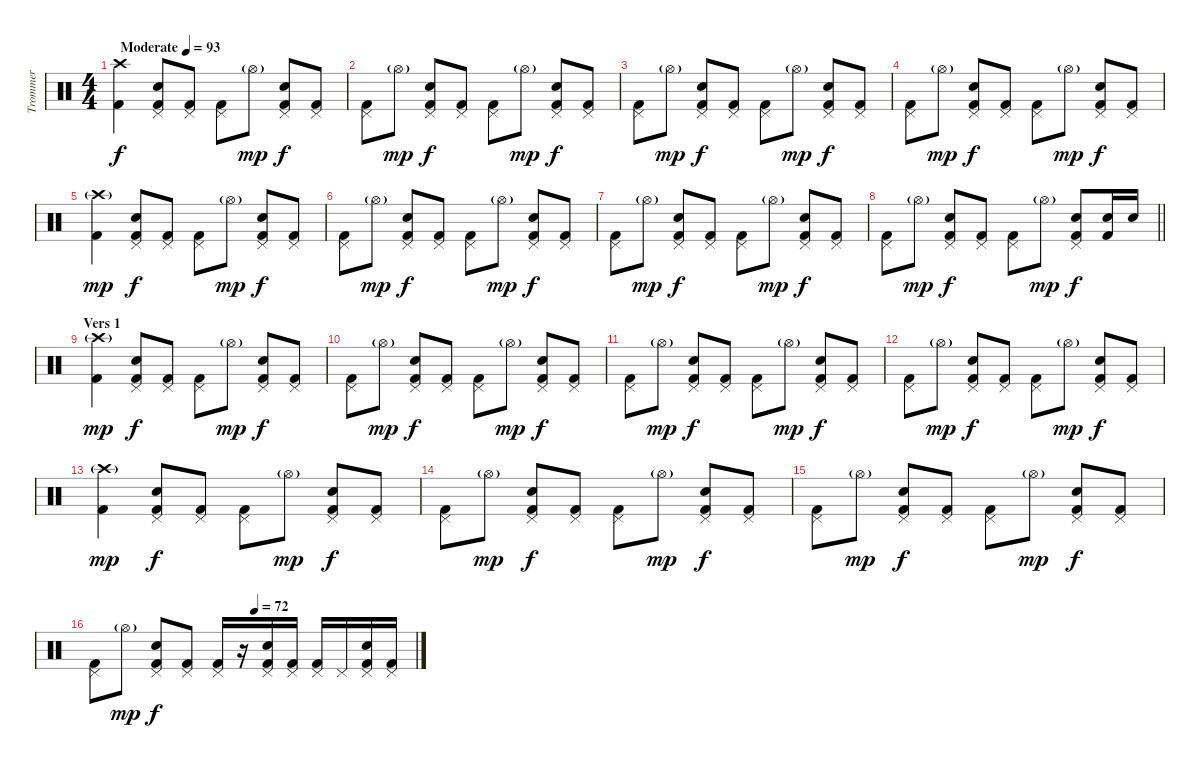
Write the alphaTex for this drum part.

\track ("Trommer" "Trommer") {instrument percussion}
\staff {score}
\articulation defaults
\ts (4 4)
\tempo (93 "Moderate")
\clef neutral
\ks c
("Crash high (hit)" "Kick (hit) 2").4{dy f} ("Pedal Hi-Hat (hit)" "Electric Snare (hit)" "Kick (hit) 2").8 ("Pedal Hi-Hat (hit)" "Kick (hit) 2").8 ("Pedal Hi-Hat (hit)" "Kick (hit) 2").8 "Hi-Hat (open)"{g}.8{dy mp} ("Pedal Hi-Hat (hit)" "Electric Snare (hit)" "Kick (hit) 2").8{dy f} ("Pedal Hi-Hat (hit)" "Kick (hit) 2").8 |
("Pedal Hi-Hat (hit)" "Kick (hit) 2").8 "Hi-Hat (open)"{g}.8{dy mp} ("Pedal Hi-Hat (hit)" "Electric Snare (hit)" "Kick (hit) 2").8{dy f} ("Pedal Hi-Hat (hit)" "Kick (hit) 2").8 ("Pedal Hi-Hat (hit)" "Kick (hit) 2").8 "Hi-Hat (open)"{g}.8{dy mp} ("Pedal Hi-Hat (hit)" "Electric Snare (hit)" "Kick (hit) 2").8{dy f} ("Pedal Hi-Hat (hit)" "Kick (hit) 2").8 |
("Pedal Hi-Hat (hit)" "Kick (hit) 2").8 "Hi-Hat (open)"{g}.8{dy mp} ("Pedal Hi-Hat (hit)" "Electric Snare (hit)" "Kick (hit) 2").8{dy f} ("Pedal Hi-Hat (hit)" "Kick (hit) 2").8 ("Pedal Hi-Hat (hit)" "Kick (hit) 2").8 "Hi-Hat (open)"{g}.8{dy mp} ("Pedal Hi-Hat (hit)" "Electric Snare (hit)" "Kick (hit) 2").8{dy f} ("Pedal Hi-Hat (hit)" "Kick (hit) 2").8 |
("Pedal Hi-Hat (hit)" "Kick (hit) 2").8 "Hi-Hat (open)"{g}.8{dy mp} ("Pedal Hi-Hat (hit)" "Electric Snare (hit)" "Kick (hit) 2").8{dy f} ("Pedal Hi-Hat (hit)" "Kick (hit) 2").8 ("Pedal Hi-Hat (hit)" "Kick (hit) 2").8 "Hi-Hat (open)"{g}.8{dy mp} ("Pedal Hi-Hat (hit)" "Electric Snare (hit)" "Kick (hit) 2").8{dy f} ("Pedal Hi-Hat (hit)" "Kick (hit) 2").8 |
("Crash high (hit)"{g} "Kick (hit) 2").4{dy mp} ("Pedal Hi-Hat (hit)" "Electric Snare (hit)" "Kick (hit) 2").8{dy f} ("Pedal Hi-Hat (hit)" "Kick (hit) 2").8 ("Pedal Hi-Hat (hit)" "Kick (hit) 2").8 "Hi-Hat (open)"{g}.8{dy mp} ("Pedal Hi-Hat (hit)" "Electric Snare (hit)" "Kick (hit) 2").8{dy f} ("Pedal Hi-Hat (hit)" "Kick (hit) 2").8 |
("Pedal Hi-Hat (hit)" "Kick (hit) 2").8 "Hi-Hat (open)"{g}.8{dy mp} ("Pedal Hi-Hat (hit)" "Electric Snare (hit)" "Kick (hit) 2").8{dy f} ("Pedal Hi-Hat (hit)" "Kick (hit) 2").8 ("Pedal Hi-Hat (hit)" "Kick (hit) 2").8 "Hi-Hat (open)"{g}.8{dy mp} ("Pedal Hi-Hat (hit)" "Electric Snare (hit)" "Kick (hit) 2").8{dy f} ("Pedal Hi-Hat (hit)" "Kick (hit) 2").8 |
("Pedal Hi-Hat (hit)" "Kick (hit) 2").8 "Hi-Hat (open)"{g}.8{dy mp} ("Pedal Hi-Hat (hit)" "Electric Snare (hit)" "Kick (hit) 2").8{dy f} ("Pedal Hi-Hat (hit)" "Kick (hit) 2").8 ("Pedal Hi-Hat (hit)" "Kick (hit) 2").8 "Hi-Hat (open)"{g}.8{dy mp} ("Pedal Hi-Hat (hit)" "Electric Snare (hit)" "Kick (hit) 2").8{dy f} ("Pedal Hi-Hat (hit)" "Kick (hit) 2").8 |
\barLineRight lightlight
("Pedal Hi-Hat (hit)" "Kick (hit) 2").8 "Hi-Hat (open)"{g}.8{dy mp} ("Pedal Hi-Hat (hit)" "Electric Snare (hit)" "Kick (hit) 2").8{dy f} ("Pedal Hi-Hat (hit)" "Kick (hit) 2").8 ("Pedal Hi-Hat (hit)" "Kick (hit) 2").8 "Hi-Hat (open)"{g}.8{dy mp} ("Pedal Hi-Hat (hit)" "Electric Snare (hit)" "Kick (hit) 2").8{dy f} ("Electric Snare (hit)" "Kick (hit) 2").16 "Electric Snare (hit)".16 |
\section ("" "Vers 1")
("Crash high (hit)"{g} "Kick (hit) 2").4{dy mp} ("Pedal Hi-Hat (hit)" "Electric Snare (hit)" "Kick (hit) 2").8{dy f} ("Pedal Hi-Hat (hit)" "Kick (hit) 2").8 ("Pedal Hi-Hat (hit)" "Kick (hit) 2").8 "Hi-Hat (open)"{g}.8{dy mp} ("Pedal Hi-Hat (hit)" "Electric Snare (hit)" "Kick (hit) 2").8{dy f} ("Pedal Hi-Hat (hit)" "Kick (hit) 2").8 |
("Pedal Hi-Hat (hit)" "Kick (hit) 2").8 "Hi-Hat (open)"{g}.8{dy mp} ("Pedal Hi-Hat (hit)" "Electric Snare (hit)" "Kick (hit) 2").8{dy f} ("Pedal Hi-Hat (hit)" "Kick (hit) 2").8 ("Pedal Hi-Hat (hit)" "Kick (hit) 2").8 "Hi-Hat (open)"{g}.8{dy mp} ("Pedal Hi-Hat (hit)" "Electric Snare (hit)" "Kick (hit) 2").8{dy f} ("Pedal Hi-Hat (hit)" "Kick (hit) 2").8 |
("Pedal Hi-Hat (hit)" "Kick (hit) 2").8 "Hi-Hat (open)"{g}.8{dy mp} ("Pedal Hi-Hat (hit)" "Electric Snare (hit)" "Kick (hit) 2").8{dy f} ("Pedal Hi-Hat (hit)" "Kick (hit) 2").8 ("Pedal Hi-Hat (hit)" "Kick (hit) 2").8 "Hi-Hat (open)"{g}.8{dy mp} ("Pedal Hi-Hat (hit)" "Electric Snare (hit)" "Kick (hit) 2").8{dy f} ("Pedal Hi-Hat (hit)" "Kick (hit) 2").8 |
("Pedal Hi-Hat (hit)" "Kick (hit) 2").8 "Hi-Hat (open)"{g}.8{dy mp} ("Pedal Hi-Hat (hit)" "Electric Snare (hit)" "Kick (hit) 2").8{dy f} ("Pedal Hi-Hat (hit)" "Kick (hit) 2").8 ("Pedal Hi-Hat (hit)" "Kick (hit) 2").8 "Hi-Hat (open)"{g}.8{dy mp} ("Pedal Hi-Hat (hit)" "Electric Snare (hit)" "Kick (hit) 2").8{dy f} ("Pedal Hi-Hat (hit)" "Kick (hit) 2").8 |
("Crash high (hit)"{g} "Kick (hit) 2").4{dy mp} ("Pedal Hi-Hat (hit)" "Electric Snare (hit)" "Kick (hit) 2").8{dy f} ("Pedal Hi-Hat (hit)" "Kick (hit) 2").8 ("Pedal Hi-Hat (hit)" "Kick (hit) 2").8 "Hi-Hat (open)"{g}.8{dy mp} ("Pedal Hi-Hat (hit)" "Electric Snare (hit)" "Kick (hit) 2").8{dy f} ("Pedal Hi-Hat (hit)" "Kick (hit) 2").8 |
("Pedal Hi-Hat (hit)" "Kick (hit) 2").8 "Hi-Hat (open)"{g}.8{dy mp} ("Pedal Hi-Hat (hit)" "Electric Snare (hit)" "Kick (hit) 2").8{dy f} ("Pedal Hi-Hat (hit)" "Kick (hit) 2").8 ("Pedal Hi-Hat (hit)" "Kick (hit) 2").8 "Hi-Hat (open)"{g}.8{dy mp} ("Pedal Hi-Hat (hit)" "Electric Snare (hit)" "Kick (hit) 2").8{dy f} ("Pedal Hi-Hat (hit)" "Kick (hit) 2").8 |
("Pedal Hi-Hat (hit)" "Kick (hit) 2").8 "Hi-Hat (open)"{g}.8{dy mp} ("Pedal Hi-Hat (hit)" "Electric Snare (hit)" "Kick (hit) 2").8{dy f} ("Pedal Hi-Hat (hit)" "Kick (hit) 2").8 ("Pedal Hi-Hat (hit)" "Kick (hit) 2").8 "Hi-Hat (open)"{g}.8{dy mp} ("Pedal Hi-Hat (hit)" "Electric Snare (hit)" "Kick (hit) 2").8{dy f} ("Pedal Hi-Hat (hit)" "Kick (hit) 2").8 |
\tempo (72 0.5)
("Pedal Hi-Hat (hit)" "Kick (hit) 2").8 "Hi-Hat (open)"{g}.8{dy mp} ("Pedal Hi-Hat (hit)" "Electric Snare (hit)" "Kick (hit) 2").8{dy f} ("Pedal Hi-Hat (hit)" "Kick (hit) 2").8 ("Pedal Hi-Hat (hit)" "Kick (hit) 2").16 r.16 ("Pedal Hi-Hat (hit)" "Kick (hit) 2" "Electric Snare (hit)").16 ("Pedal Hi-Hat (hit)" "Kick (hit) 2").16 ("Pedal Hi-Hat (hit)" "Kick (hit) 2").16 "Pedal Hi-Hat (hit)".16 ("Pedal Hi-Hat (hit)" "Kick (hit) 2" "Electric Snare (hit)").16 ("Pedal Hi-Hat (hit)" "Kick (hit) 2").16
